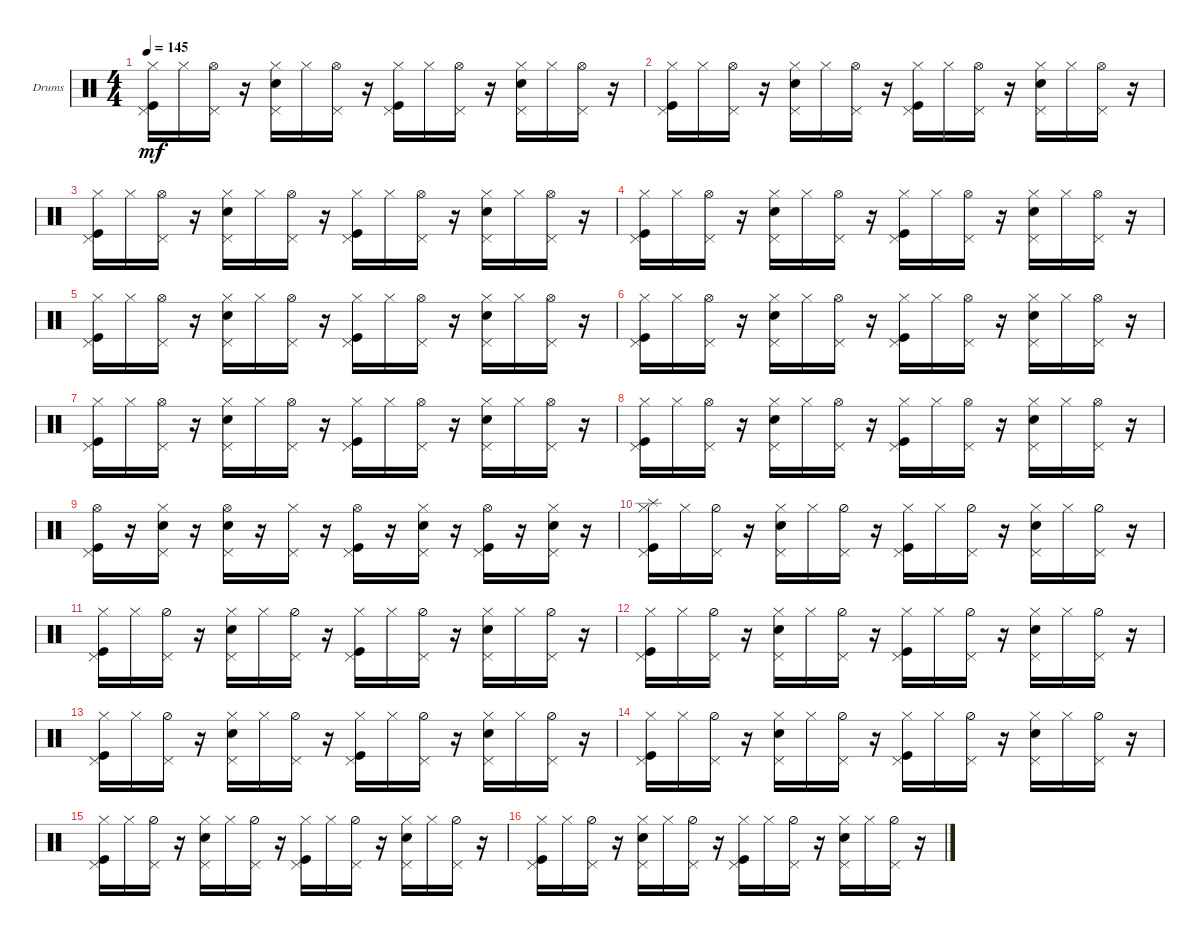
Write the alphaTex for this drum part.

\bracketExtendMode groupsimilarinstruments
\firstSystemTrackNameOrientation horizontal
\otherSystemsTrackNameOrientation horizontal
\track ("Drumkit" "Drums") {solo instrument percussion}
\staff {score}
\articulation defaults
\ts (4 4)
\tempo 145
\clef neutral
\ks c
("Kick (hit)" "Hi-Hat (closed)" "Pedal Hi-Hat (hit)").16{dy mf} "Hi-Hat (closed)".16 ("Hi-Hat (open)" "Pedal Hi-Hat (hit)").16 r.16 ("Snare (hit) 2" "Pedal Hi-Hat (hit)" "Hi-Hat (closed)").16 "Hi-Hat (closed)".16 ("Hi-Hat (open)" "Pedal Hi-Hat (hit)").16 r.16 ("Kick (hit)" "Hi-Hat (closed)" "Pedal Hi-Hat (hit)").16 "Hi-Hat (closed)".16 ("Hi-Hat (open)" "Pedal Hi-Hat (hit)").16 r.16 ("Snare (hit) 2" "Pedal Hi-Hat (hit)" "Hi-Hat (closed)").16 "Hi-Hat (closed)".16 ("Hi-Hat (open)" "Pedal Hi-Hat (hit)").16 r.16 |
("Pedal Hi-Hat (hit)" "Kick (hit)" "Hi-Hat (closed)").16 "Hi-Hat (closed)".16 ("Hi-Hat (open)" "Pedal Hi-Hat (hit)").16 r.16 ("Snare (hit) 2" "Pedal Hi-Hat (hit)" "Hi-Hat (closed)").16 "Hi-Hat (closed)".16 ("Hi-Hat (open)" "Pedal Hi-Hat (hit)").16 r.16 ("Kick (hit)" "Hi-Hat (closed)" "Pedal Hi-Hat (hit)").16 "Hi-Hat (closed)".16 ("Hi-Hat (open)" "Pedal Hi-Hat (hit)").16 r.16 ("Snare (hit) 2" "Pedal Hi-Hat (hit)" "Hi-Hat (closed)").16 "Hi-Hat (closed)".16 ("Hi-Hat (open)" "Pedal Hi-Hat (hit)").16 r.16 |
("Kick (hit)" "Hi-Hat (closed)" "Pedal Hi-Hat (hit)").16 "Hi-Hat (closed)".16 ("Hi-Hat (open)" "Pedal Hi-Hat (hit)").16 r.16 ("Snare (hit) 2" "Pedal Hi-Hat (hit)" "Hi-Hat (closed)").16 "Hi-Hat (closed)".16 ("Hi-Hat (open)" "Pedal Hi-Hat (hit)").16 r.16 ("Kick (hit)" "Hi-Hat (closed)" "Pedal Hi-Hat (hit)").16 "Hi-Hat (closed)".16 ("Hi-Hat (open)" "Pedal Hi-Hat (hit)").16 r.16 ("Snare (hit) 2" "Pedal Hi-Hat (hit)" "Hi-Hat (closed)").16 "Hi-Hat (closed)".16 ("Hi-Hat (open)" "Pedal Hi-Hat (hit)").16 r.16 |
("Kick (hit)" "Hi-Hat (closed)" "Pedal Hi-Hat (hit)").16 "Hi-Hat (closed)".16 ("Hi-Hat (open)" "Pedal Hi-Hat (hit)").16 r.16 ("Snare (hit) 2" "Pedal Hi-Hat (hit)" "Hi-Hat (closed)").16 "Hi-Hat (closed)".16 ("Hi-Hat (open)" "Pedal Hi-Hat (hit)").16 r.16 ("Kick (hit)" "Hi-Hat (closed)" "Pedal Hi-Hat (hit)").16 "Hi-Hat (closed)".16 ("Hi-Hat (open)" "Pedal Hi-Hat (hit)").16 r.16 ("Snare (hit) 2" "Pedal Hi-Hat (hit)" "Hi-Hat (closed)").16 "Hi-Hat (closed)".16 ("Hi-Hat (open)" "Pedal Hi-Hat (hit)").16 r.16 |
("Kick (hit)" "Hi-Hat (closed)" "Pedal Hi-Hat (hit)").16 "Hi-Hat (closed)".16 ("Hi-Hat (open)" "Pedal Hi-Hat (hit)").16 r.16 ("Snare (hit) 2" "Pedal Hi-Hat (hit)" "Hi-Hat (closed)").16 "Hi-Hat (closed)".16 ("Hi-Hat (open)" "Pedal Hi-Hat (hit)").16 r.16 ("Kick (hit)" "Hi-Hat (closed)" "Pedal Hi-Hat (hit)").16 "Hi-Hat (closed)".16 ("Hi-Hat (open)" "Pedal Hi-Hat (hit)").16 r.16 ("Snare (hit) 2" "Pedal Hi-Hat (hit)" "Hi-Hat (closed)").16 "Hi-Hat (closed)".16 ("Hi-Hat (open)" "Pedal Hi-Hat (hit)").16 r.16 |
("Kick (hit)" "Hi-Hat (closed)" "Pedal Hi-Hat (hit)").16 "Hi-Hat (closed)".16 ("Hi-Hat (open)" "Pedal Hi-Hat (hit)").16 r.16 ("Snare (hit) 2" "Pedal Hi-Hat (hit)" "Hi-Hat (closed)").16 "Hi-Hat (closed)".16 ("Hi-Hat (open)" "Pedal Hi-Hat (hit)").16 r.16 ("Kick (hit)" "Hi-Hat (closed)" "Pedal Hi-Hat (hit)").16 "Hi-Hat (closed)".16 ("Hi-Hat (open)" "Pedal Hi-Hat (hit)").16 r.16 ("Snare (hit) 2" "Pedal Hi-Hat (hit)" "Hi-Hat (closed)").16 "Hi-Hat (closed)".16 ("Hi-Hat (open)" "Pedal Hi-Hat (hit)").16 r.16 |
("Kick (hit)" "Hi-Hat (closed)" "Pedal Hi-Hat (hit)").16 "Hi-Hat (closed)".16 ("Hi-Hat (open)" "Pedal Hi-Hat (hit)").16 r.16 ("Snare (hit) 2" "Pedal Hi-Hat (hit)" "Hi-Hat (closed)").16 "Hi-Hat (closed)".16 ("Hi-Hat (open)" "Pedal Hi-Hat (hit)").16 r.16 ("Kick (hit)" "Hi-Hat (closed)" "Pedal Hi-Hat (hit)").16 "Hi-Hat (closed)".16 ("Hi-Hat (open)" "Pedal Hi-Hat (hit)").16 r.16 ("Snare (hit) 2" "Pedal Hi-Hat (hit)" "Hi-Hat (closed)").16 "Hi-Hat (closed)".16 ("Hi-Hat (open)" "Pedal Hi-Hat (hit)").16 r.16 |
("Kick (hit)" "Hi-Hat (closed)" "Pedal Hi-Hat (hit)").16 "Hi-Hat (closed)".16 ("Hi-Hat (open)" "Pedal Hi-Hat (hit)").16 r.16 ("Snare (hit) 2" "Pedal Hi-Hat (hit)" "Hi-Hat (closed)").16 "Hi-Hat (closed)".16 ("Hi-Hat (open)" "Pedal Hi-Hat (hit)").16 r.16 ("Kick (hit)" "Hi-Hat (closed)" "Pedal Hi-Hat (hit)").16 "Hi-Hat (closed)".16 ("Hi-Hat (open)" "Pedal Hi-Hat (hit)").16 r.16 ("Snare (hit) 2" "Pedal Hi-Hat (hit)" "Hi-Hat (closed)").16 "Hi-Hat (closed)".16 ("Hi-Hat (open)" "Pedal Hi-Hat (hit)").16 r.16 |
("Kick (hit)" "Hi-Hat (open)" "Pedal Hi-Hat (hit)").16 r.16 ("Hi-Hat (closed)" "Snare (hit) 2" "Pedal Hi-Hat (hit)").16 r.16 ("Snare (hit) 2" "Hi-Hat (open)" "Pedal Hi-Hat (hit)").16 r.16 ("Hi-Hat (closed)" "Pedal Hi-Hat (hit)").16 r.16 ("Kick (hit)" "Hi-Hat (open)" "Pedal Hi-Hat (hit)").16 r.16 ("Hi-Hat (closed)" "Snare (hit) 2" "Pedal Hi-Hat (hit)").16 r.16 ("Hi-Hat (open)" "Kick (hit)" "Pedal Hi-Hat (hit)").16 r.16 ("Hi-Hat (closed)" "Snare (hit) 2" "Pedal Hi-Hat (hit)").16 r.16 |
("Kick (hit)" "Hi-Hat (closed)" "Pedal Hi-Hat (hit)" "Splash (hit)").16 "Hi-Hat (closed)".16 ("Hi-Hat (half)" "Pedal Hi-Hat (hit)").16 r.16 ("Snare (hit) 2" "Pedal Hi-Hat (hit)" "Hi-Hat (closed)").16 "Hi-Hat (closed)".16 ("Hi-Hat (half)" "Pedal Hi-Hat (hit)").16 r.16 ("Kick (hit)" "Hi-Hat (closed)" "Pedal Hi-Hat (hit)").16 "Hi-Hat (closed)".16 ("Hi-Hat (half)" "Pedal Hi-Hat (hit)").16 r.16 ("Snare (hit) 2" "Pedal Hi-Hat (hit)" "Hi-Hat (closed)").16 "Hi-Hat (closed)".16 ("Hi-Hat (half)" "Pedal Hi-Hat (hit)").16 r.16 |
("Kick (hit)" "Hi-Hat (closed)" "Pedal Hi-Hat (hit)").16 "Hi-Hat (closed)".16 ("Hi-Hat (half)" "Pedal Hi-Hat (hit)").16 r.16 ("Snare (hit) 2" "Pedal Hi-Hat (hit)" "Hi-Hat (closed)").16 "Hi-Hat (closed)".16 ("Hi-Hat (half)" "Pedal Hi-Hat (hit)").16 r.16 ("Kick (hit)" "Hi-Hat (closed)" "Pedal Hi-Hat (hit)").16 "Hi-Hat (closed)".16 ("Hi-Hat (half)" "Pedal Hi-Hat (hit)").16 r.16 ("Snare (hit) 2" "Pedal Hi-Hat (hit)" "Hi-Hat (closed)").16 "Hi-Hat (closed)".16 ("Hi-Hat (half)" "Pedal Hi-Hat (hit)").16 r.16 |
("Kick (hit)" "Hi-Hat (closed)" "Pedal Hi-Hat (hit)").16 "Hi-Hat (closed)".16 ("Hi-Hat (half)" "Pedal Hi-Hat (hit)").16 r.16 ("Snare (hit) 2" "Pedal Hi-Hat (hit)" "Hi-Hat (closed)").16 "Hi-Hat (closed)".16 ("Hi-Hat (half)" "Pedal Hi-Hat (hit)").16 r.16 ("Kick (hit)" "Hi-Hat (closed)" "Pedal Hi-Hat (hit)").16 "Hi-Hat (closed)".16 ("Hi-Hat (half)" "Pedal Hi-Hat (hit)").16 r.16 ("Snare (hit) 2" "Pedal Hi-Hat (hit)" "Hi-Hat (closed)").16 "Hi-Hat (closed)".16 ("Hi-Hat (half)" "Pedal Hi-Hat (hit)").16 r.16 |
("Kick (hit)" "Hi-Hat (closed)" "Pedal Hi-Hat (hit)").16 "Hi-Hat (closed)".16 ("Hi-Hat (half)" "Pedal Hi-Hat (hit)").16 r.16 ("Snare (hit) 2" "Pedal Hi-Hat (hit)" "Hi-Hat (closed)").16 "Hi-Hat (closed)".16 ("Hi-Hat (half)" "Pedal Hi-Hat (hit)").16 r.16 ("Kick (hit)" "Hi-Hat (closed)" "Pedal Hi-Hat (hit)").16 "Hi-Hat (closed)".16 ("Hi-Hat (half)" "Pedal Hi-Hat (hit)").16 r.16 ("Snare (hit) 2" "Pedal Hi-Hat (hit)" "Hi-Hat (closed)").16 "Hi-Hat (closed)".16 ("Hi-Hat (half)" "Pedal Hi-Hat (hit)").16 r.16 |
("Kick (hit)" "Hi-Hat (closed)" "Pedal Hi-Hat (hit)").16 "Hi-Hat (closed)".16 ("Hi-Hat (half)" "Pedal Hi-Hat (hit)").16 r.16 ("Snare (hit) 2" "Pedal Hi-Hat (hit)" "Hi-Hat (closed)").16 "Hi-Hat (closed)".16 ("Hi-Hat (half)" "Pedal Hi-Hat (hit)").16 r.16 ("Kick (hit)" "Hi-Hat (closed)" "Pedal Hi-Hat (hit)").16 "Hi-Hat (closed)".16 ("Hi-Hat (half)" "Pedal Hi-Hat (hit)").16 r.16 ("Snare (hit) 2" "Pedal Hi-Hat (hit)" "Hi-Hat (closed)").16 "Hi-Hat (closed)".16 ("Hi-Hat (half)" "Pedal Hi-Hat (hit)").16 r.16 |
("Kick (hit)" "Hi-Hat (closed)" "Pedal Hi-Hat (hit)").16 "Hi-Hat (closed)".16 ("Hi-Hat (half)" "Pedal Hi-Hat (hit)").16 r.16 ("Snare (hit) 2" "Pedal Hi-Hat (hit)" "Hi-Hat (closed)").16 "Hi-Hat (closed)".16 ("Hi-Hat (half)" "Pedal Hi-Hat (hit)").16 r.16 ("Kick (hit)" "Hi-Hat (closed)" "Pedal Hi-Hat (hit)").16 "Hi-Hat (closed)".16 ("Hi-Hat (half)" "Pedal Hi-Hat (hit)").16 r.16 ("Snare (hit) 2" "Pedal Hi-Hat (hit)" "Hi-Hat (closed)").16 "Hi-Hat (closed)".16 ("Hi-Hat (half)" "Pedal Hi-Hat (hit)").16 r.16 |
("Kick (hit)" "Hi-Hat (closed)" "Pedal Hi-Hat (hit)").16 "Hi-Hat (closed)".16 ("Hi-Hat (half)" "Pedal Hi-Hat (hit)").16 r.16 ("Snare (hit) 2" "Pedal Hi-Hat (hit)" "Hi-Hat (closed)").16 "Hi-Hat (closed)".16 ("Hi-Hat (half)" "Pedal Hi-Hat (hit)").16 r.16 ("Kick (hit)" "Hi-Hat (closed)" "Pedal Hi-Hat (hit)").16 "Hi-Hat (closed)".16 ("Hi-Hat (half)" "Pedal Hi-Hat (hit)").16 r.16 ("Snare (hit) 2" "Pedal Hi-Hat (hit)" "Hi-Hat (closed)").16 "Hi-Hat (closed)".16 ("Hi-Hat (half)" "Pedal Hi-Hat (hit)").16 r.16
